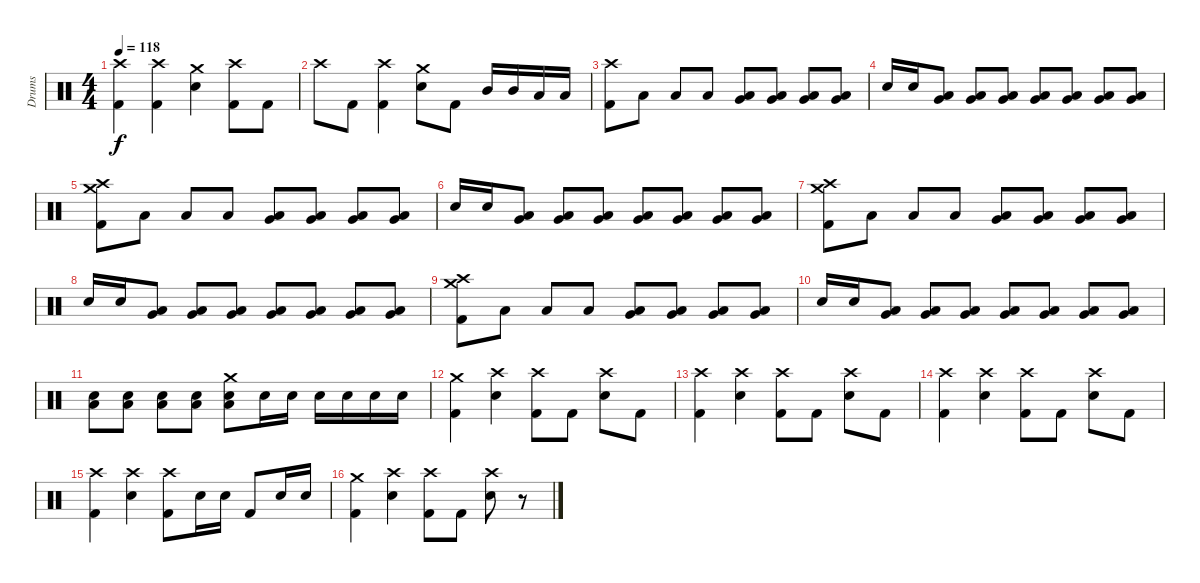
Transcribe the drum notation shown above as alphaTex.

\track ("Drums" "Drums") {instrument percussion bank 5}
\staff {score}
\articulation defaults
\ts (4 4)
\tempo 118
\clef neutral
\ks c
("Crash high (hit)" "Kick (hit) 2").4{dy f} ("Crash high (hit)" "Kick (hit) 2").4 ("Crash medium (hit)" "Snare (hit) 2").4 ("Crash high (hit)" "Kick (hit) 2").8 "Kick (hit) 2".8 |
"Crash high (hit)".8 "Kick (hit) 2".8 ("Crash high (hit)" "Kick (hit) 2").4 ("Crash medium (hit)" "Snare (hit) 2").8 "Kick (hit) 2".8 "Mid Tom (hit)".16 "Mid Tom (hit)".16 "Low Tom (hit)".16 "Low Tom (hit)".16 |
("Crash high (hit)" "Kick (hit) 2").8 "Low Floor Tom (hit)".8 "Low Floor Tom (hit)".8 "Low Floor Tom (hit)".8 ("Low Floor Tom (hit)" "Very Low Tom (hit)").8 ("Low Floor Tom (hit)" "Very Low Tom (hit)").8 ("Low Floor Tom (hit)" "Very Low Tom (hit)").8 ("Low Floor Tom (hit)" "Very Low Tom (hit)").8 |
"Snare (hit) 2".16 "Snare (hit) 2".16 ("Low Floor Tom (hit)" "Very Low Tom (hit)").8 ("Low Floor Tom (hit)" "Very Low Tom (hit)").8 ("Low Floor Tom (hit)" "Very Low Tom (hit)").8 ("Low Floor Tom (hit)" "Very Low Tom (hit)").8 ("Low Floor Tom (hit)" "Very Low Tom (hit)").8 ("Low Floor Tom (hit)" "Very Low Tom (hit)").8 ("Low Floor Tom (hit)" "Very Low Tom (hit)").8 |
("Crash high (hit)" "Crash medium (hit)" "Kick (hit) 2").8 "Low Floor Tom (hit)".8 "Low Floor Tom (hit)".8 "Low Floor Tom (hit)".8 ("Low Floor Tom (hit)" "Very Low Tom (hit)").8 ("Low Floor Tom (hit)" "Very Low Tom (hit)").8 ("Low Floor Tom (hit)" "Very Low Tom (hit)").8 ("Low Floor Tom (hit)" "Very Low Tom (hit)").8 |
"Snare (hit) 2".16 "Snare (hit) 2".16 ("Low Floor Tom (hit)" "Very Low Tom (hit)").8 ("Low Floor Tom (hit)" "Very Low Tom (hit)").8 ("Low Floor Tom (hit)" "Very Low Tom (hit)").8 ("Low Floor Tom (hit)" "Very Low Tom (hit)").8 ("Low Floor Tom (hit)" "Very Low Tom (hit)").8 ("Low Floor Tom (hit)" "Very Low Tom (hit)").8 ("Low Floor Tom (hit)" "Very Low Tom (hit)").8 |
("Crash high (hit)" "Crash medium (hit)" "Kick (hit) 2").8 "Low Floor Tom (hit)".8 "Low Floor Tom (hit)".8 "Low Floor Tom (hit)".8 ("Low Floor Tom (hit)" "Very Low Tom (hit)").8 ("Low Floor Tom (hit)" "Very Low Tom (hit)").8 ("Low Floor Tom (hit)" "Very Low Tom (hit)").8 ("Low Floor Tom (hit)" "Very Low Tom (hit)").8 |
"Snare (hit) 2".16 "Snare (hit) 2".16 ("Low Floor Tom (hit)" "Very Low Tom (hit)").8 ("Low Floor Tom (hit)" "Very Low Tom (hit)").8 ("Low Floor Tom (hit)" "Very Low Tom (hit)").8 ("Low Floor Tom (hit)" "Very Low Tom (hit)").8 ("Low Floor Tom (hit)" "Very Low Tom (hit)").8 ("Low Floor Tom (hit)" "Very Low Tom (hit)").8 ("Low Floor Tom (hit)" "Very Low Tom (hit)").8 |
("Crash high (hit)" "Crash medium (hit)" "Kick (hit) 2").8 "Low Floor Tom (hit)".8 "Low Floor Tom (hit)".8 "Low Floor Tom (hit)".8 ("Low Floor Tom (hit)" "Very Low Tom (hit)").8 ("Low Floor Tom (hit)" "Very Low Tom (hit)").8 ("Low Floor Tom (hit)" "Very Low Tom (hit)").8 ("Low Floor Tom (hit)" "Very Low Tom (hit)").8 |
"Snare (hit) 2".16 "Snare (hit) 2".16 ("Low Floor Tom (hit)" "Very Low Tom (hit)").8 ("Low Floor Tom (hit)" "Very Low Tom (hit)").8 ("Low Floor Tom (hit)" "Very Low Tom (hit)").8 ("Low Floor Tom (hit)" "Very Low Tom (hit)").8 ("Low Floor Tom (hit)" "Very Low Tom (hit)").8 ("Low Floor Tom (hit)" "Very Low Tom (hit)").8 ("Low Floor Tom (hit)" "Very Low Tom (hit)").8 |
("Low Floor Tom (hit)" "Snare (hit) 2").8 ("Low Floor Tom (hit)" "Snare (hit) 2").8 ("Low Floor Tom (hit)" "Snare (hit) 2").8 ("Low Floor Tom (hit)" "Snare (hit) 2").8 ("Crash medium (hit)" "Low Floor Tom (hit)" "Snare (hit) 2").8 "Snare (hit) 2".16 "Snare (hit) 2".16 "Snare (hit) 2".16 "Snare (hit) 2".16 "Snare (hit) 2".16 "Snare (hit) 2".16 |
("Crash medium (hit)" "Kick (hit) 2").4 ("Crash high (hit)" "Snare (hit) 2").4 ("Crash high (hit)" "Kick (hit) 2").8 "Kick (hit) 2".8 ("Crash high (hit)" "Snare (hit) 2").8 "Kick (hit) 2".8 |
("Crash high (hit)" "Kick (hit) 2").4 ("Crash high (hit)" "Snare (hit) 2").4 ("Crash high (hit)" "Kick (hit) 2").8 "Kick (hit) 2".8 ("Crash high (hit)" "Snare (hit) 2").8 "Kick (hit) 2".8 |
("Crash high (hit)" "Kick (hit) 2").4 ("Crash high (hit)" "Snare (hit) 2").4 ("Crash high (hit)" "Kick (hit) 2").8 "Kick (hit) 2".8 ("Crash high (hit)" "Snare (hit) 2").8 "Kick (hit) 2".8 |
("Crash high (hit)" "Kick (hit) 2").4 ("Crash high (hit)" "Snare (hit) 2").4 ("Crash high (hit)" "Kick (hit) 2").8 "Snare (hit) 2".16 "Snare (hit) 2".16 "Kick (hit) 2".8 "Snare (hit) 2".16 "Snare (hit) 2".16 |
("Crash medium (hit)" "Kick (hit) 2").4 ("Crash high (hit)" "Snare (hit) 2").4 ("Crash high (hit)" "Kick (hit) 2").8 "Kick (hit) 2".8 ("Crash high (hit)" "Snare (hit) 2").8 r.8
